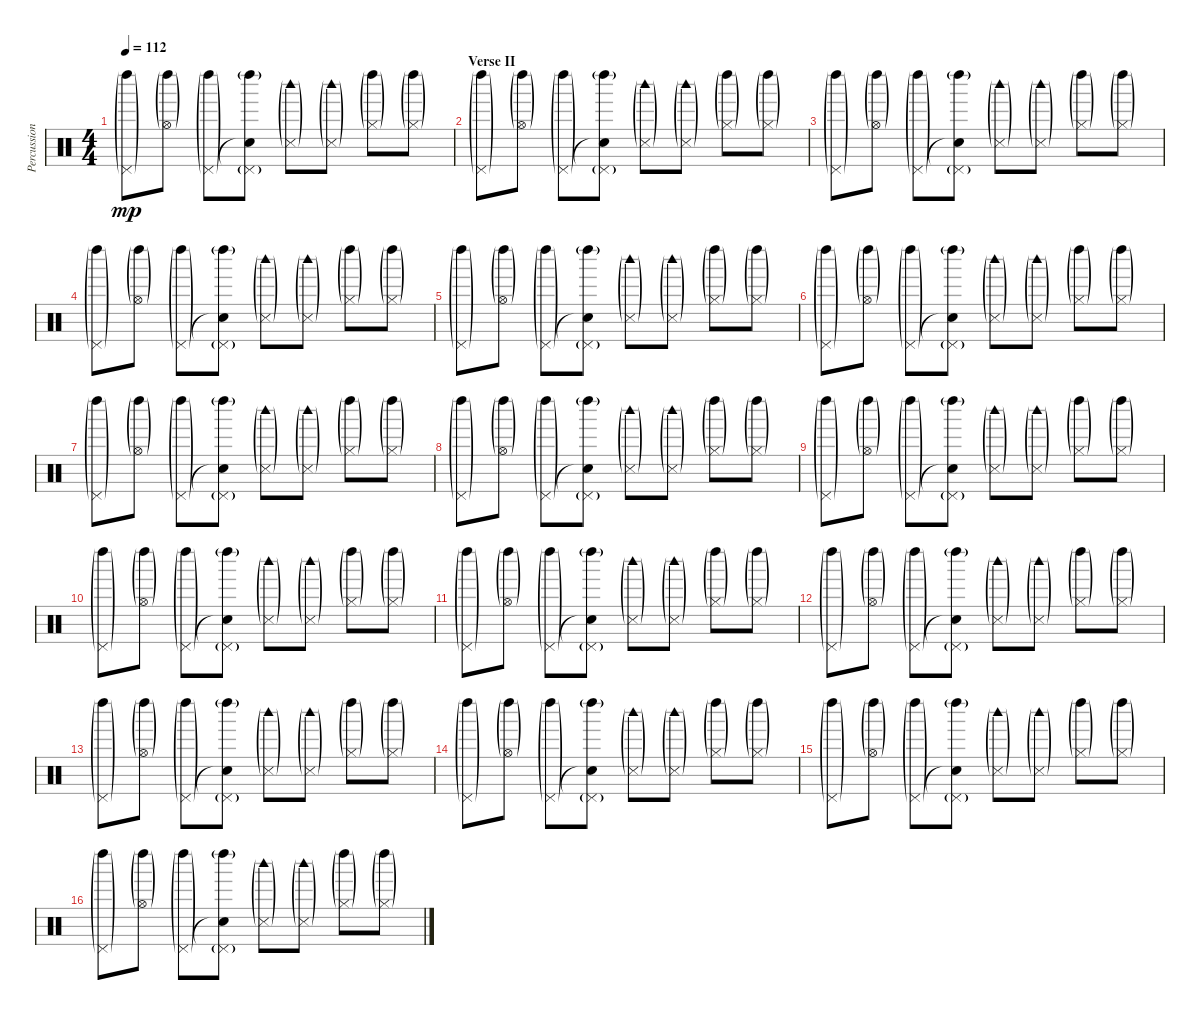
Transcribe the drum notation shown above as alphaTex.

\track ("Percussion" "Percussion") {instrument percussion}
\staff {score}
\articulation defaults
\ts (4 4)
\tempo 112
\clef neutral
\ks c
("Left Maraca (hit)"{g} "Pedal Hi-Hat (hit)"{g}).8{dy mp} ("Left Maraca (hit)"{g} "Hi-Hat (open)"{g}).8 ("Left Maraca (hit)"{g} "Pedal Hi-Hat (hit)"{g}).8 ("Left Maraca (hit)"{g} "Snare (hit)"{t} "Pedal Hi-Hat (hit)"{g}).8 ("Snare (side stick) 3"{g} "Woodblock high (hit)"{g}).8 ("Snare (side stick) 3"{g} "Woodblock high (hit)"{g}).8 ("Left Maraca (hit)"{g} "Hi-Hat (closed)"{g}).8 ("Left Maraca (hit)"{g} "Hi-Hat (closed)"{g}).8 |
\section ("" "Verse II")
("Left Maraca (hit)"{g} "Pedal Hi-Hat (hit)"{g}).8 ("Left Maraca (hit)"{g} "Hi-Hat (open)"{g}).8 ("Left Maraca (hit)"{g} "Pedal Hi-Hat (hit)"{g}).8 ("Left Maraca (hit)"{g} "Snare (hit)"{t} "Pedal Hi-Hat (hit)"{g}).8 ("Snare (side stick) 3"{g} "Woodblock high (hit)"{g}).8 ("Snare (side stick) 3"{g} "Woodblock high (hit)"{g}).8 ("Left Maraca (hit)"{g} "Hi-Hat (closed)"{g}).8 ("Left Maraca (hit)"{g} "Hi-Hat (closed)"{g}).8 |
("Left Maraca (hit)"{g} "Pedal Hi-Hat (hit)"{g}).8 ("Left Maraca (hit)"{g} "Hi-Hat (open)"{g}).8 ("Left Maraca (hit)"{g} "Pedal Hi-Hat (hit)"{g}).8 ("Left Maraca (hit)"{g} "Snare (hit)"{t} "Pedal Hi-Hat (hit)"{g}).8 ("Snare (side stick) 3"{g} "Woodblock high (hit)"{g}).8 ("Snare (side stick) 3"{g} "Woodblock high (hit)"{g}).8 ("Left Maraca (hit)"{g} "Hi-Hat (closed)"{g}).8 ("Left Maraca (hit)"{g} "Hi-Hat (closed)"{g}).8 |
("Left Maraca (hit)"{g} "Pedal Hi-Hat (hit)"{g}).8 ("Left Maraca (hit)"{g} "Hi-Hat (open)"{g}).8 ("Left Maraca (hit)"{g} "Pedal Hi-Hat (hit)"{g}).8 ("Left Maraca (hit)"{g} "Snare (hit)"{t} "Pedal Hi-Hat (hit)"{g}).8 ("Snare (side stick) 3"{g} "Woodblock high (hit)"{g}).8 ("Snare (side stick) 3"{g} "Woodblock high (hit)"{g}).8 ("Left Maraca (hit)"{g} "Hi-Hat (closed)"{g}).8 ("Left Maraca (hit)"{g} "Hi-Hat (closed)"{g}).8 |
("Left Maraca (hit)"{g} "Pedal Hi-Hat (hit)"{g}).8 ("Left Maraca (hit)"{g} "Hi-Hat (open)"{g}).8 ("Left Maraca (hit)"{g} "Pedal Hi-Hat (hit)"{g}).8 ("Left Maraca (hit)"{g} "Snare (hit)"{t} "Pedal Hi-Hat (hit)"{g}).8 ("Snare (side stick) 3"{g} "Woodblock high (hit)"{g}).8 ("Snare (side stick) 3"{g} "Woodblock high (hit)"{g}).8 ("Left Maraca (hit)"{g} "Hi-Hat (closed)"{g}).8 ("Left Maraca (hit)"{g} "Hi-Hat (closed)"{g}).8 |
("Left Maraca (hit)"{g} "Pedal Hi-Hat (hit)"{g}).8 ("Left Maraca (hit)"{g} "Hi-Hat (open)"{g}).8 ("Left Maraca (hit)"{g} "Pedal Hi-Hat (hit)"{g}).8 ("Left Maraca (hit)"{g} "Snare (hit)"{t} "Pedal Hi-Hat (hit)"{g}).8 ("Snare (side stick) 3"{g} "Woodblock high (hit)"{g}).8 ("Snare (side stick) 3"{g} "Woodblock high (hit)"{g}).8 ("Left Maraca (hit)"{g} "Hi-Hat (closed)"{g}).8 ("Left Maraca (hit)"{g} "Hi-Hat (closed)"{g}).8 |
("Left Maraca (hit)"{g} "Pedal Hi-Hat (hit)"{g}).8 ("Left Maraca (hit)"{g} "Hi-Hat (open)"{g}).8 ("Left Maraca (hit)"{g} "Pedal Hi-Hat (hit)"{g}).8 ("Left Maraca (hit)"{g} "Snare (hit)"{t} "Pedal Hi-Hat (hit)"{g}).8 ("Snare (side stick) 3"{g} "Woodblock high (hit)"{g}).8 ("Snare (side stick) 3"{g} "Woodblock high (hit)"{g}).8 ("Left Maraca (hit)"{g} "Hi-Hat (closed)"{g}).8 ("Left Maraca (hit)"{g} "Hi-Hat (closed)"{g}).8 |
("Left Maraca (hit)"{g} "Pedal Hi-Hat (hit)"{g}).8 ("Left Maraca (hit)"{g} "Hi-Hat (open)"{g}).8 ("Left Maraca (hit)"{g} "Pedal Hi-Hat (hit)"{g}).8 ("Left Maraca (hit)"{g} "Snare (hit)"{t} "Pedal Hi-Hat (hit)"{g}).8 ("Snare (side stick) 3"{g} "Woodblock high (hit)"{g}).8 ("Snare (side stick) 3"{g} "Woodblock high (hit)"{g}).8 ("Left Maraca (hit)"{g} "Hi-Hat (closed)"{g}).8 ("Left Maraca (hit)"{g} "Hi-Hat (closed)"{g}).8 |
("Left Maraca (hit)"{g} "Pedal Hi-Hat (hit)"{g}).8 ("Left Maraca (hit)"{g} "Hi-Hat (open)"{g}).8 ("Left Maraca (hit)"{g} "Pedal Hi-Hat (hit)"{g}).8 ("Left Maraca (hit)"{g} "Snare (hit)"{t} "Pedal Hi-Hat (hit)"{g}).8 ("Snare (side stick) 3"{g} "Woodblock high (hit)"{g}).8 ("Snare (side stick) 3"{g} "Woodblock high (hit)"{g}).8 ("Left Maraca (hit)"{g} "Hi-Hat (closed)"{g}).8 ("Left Maraca (hit)"{g} "Hi-Hat (closed)"{g}).8 |
("Left Maraca (hit)"{g} "Pedal Hi-Hat (hit)"{g}).8 ("Left Maraca (hit)"{g} "Hi-Hat (open)"{g}).8 ("Left Maraca (hit)"{g} "Pedal Hi-Hat (hit)"{g}).8 ("Left Maraca (hit)"{g} "Snare (hit)"{t} "Pedal Hi-Hat (hit)"{g}).8 ("Snare (side stick) 3"{g} "Woodblock high (hit)"{g}).8 ("Snare (side stick) 3"{g} "Woodblock high (hit)"{g}).8 ("Left Maraca (hit)"{g} "Hi-Hat (closed)"{g}).8 ("Left Maraca (hit)"{g} "Hi-Hat (closed)"{g}).8 |
("Left Maraca (hit)"{g} "Pedal Hi-Hat (hit)"{g}).8 ("Left Maraca (hit)"{g} "Hi-Hat (open)"{g}).8 ("Left Maraca (hit)"{g} "Pedal Hi-Hat (hit)"{g}).8 ("Left Maraca (hit)"{g} "Snare (hit)"{t} "Pedal Hi-Hat (hit)"{g}).8 ("Snare (side stick) 3"{g} "Woodblock high (hit)"{g}).8 ("Snare (side stick) 3"{g} "Woodblock high (hit)"{g}).8 ("Left Maraca (hit)"{g} "Hi-Hat (closed)"{g}).8 ("Left Maraca (hit)"{g} "Hi-Hat (closed)"{g}).8 |
("Left Maraca (hit)"{g} "Pedal Hi-Hat (hit)"{g}).8 ("Left Maraca (hit)"{g} "Hi-Hat (open)"{g}).8 ("Left Maraca (hit)"{g} "Pedal Hi-Hat (hit)"{g}).8 ("Left Maraca (hit)"{g} "Snare (hit)"{t} "Pedal Hi-Hat (hit)"{g}).8 ("Snare (side stick) 3"{g} "Woodblock high (hit)"{g}).8 ("Snare (side stick) 3"{g} "Woodblock high (hit)"{g}).8 ("Left Maraca (hit)"{g} "Hi-Hat (closed)"{g}).8 ("Left Maraca (hit)"{g} "Hi-Hat (closed)"{g}).8 |
("Left Maraca (hit)"{g} "Pedal Hi-Hat (hit)"{g}).8 ("Left Maraca (hit)"{g} "Hi-Hat (open)"{g}).8 ("Left Maraca (hit)"{g} "Pedal Hi-Hat (hit)"{g}).8 ("Left Maraca (hit)"{g} "Snare (hit)"{t} "Pedal Hi-Hat (hit)"{g}).8 ("Snare (side stick) 3"{g} "Woodblock high (hit)"{g}).8 ("Snare (side stick) 3"{g} "Woodblock high (hit)"{g}).8 ("Left Maraca (hit)"{g} "Hi-Hat (closed)"{g}).8 ("Left Maraca (hit)"{g} "Hi-Hat (closed)"{g}).8 |
("Left Maraca (hit)"{g} "Pedal Hi-Hat (hit)"{g}).8 ("Left Maraca (hit)"{g} "Hi-Hat (open)"{g}).8 ("Left Maraca (hit)"{g} "Pedal Hi-Hat (hit)"{g}).8 ("Left Maraca (hit)"{g} "Snare (hit)"{t} "Pedal Hi-Hat (hit)"{g}).8 ("Snare (side stick) 3"{g} "Woodblock high (hit)"{g}).8 ("Snare (side stick) 3"{g} "Woodblock high (hit)"{g}).8 ("Left Maraca (hit)"{g} "Hi-Hat (closed)"{g}).8 ("Left Maraca (hit)"{g} "Hi-Hat (closed)"{g}).8 |
("Left Maraca (hit)"{g} "Pedal Hi-Hat (hit)"{g}).8 ("Left Maraca (hit)"{g} "Hi-Hat (open)"{g}).8 ("Left Maraca (hit)"{g} "Pedal Hi-Hat (hit)"{g}).8 ("Left Maraca (hit)"{g} "Snare (hit)"{t} "Pedal Hi-Hat (hit)"{g}).8 ("Snare (side stick) 3"{g} "Woodblock high (hit)"{g}).8 ("Snare (side stick) 3"{g} "Woodblock high (hit)"{g}).8 ("Left Maraca (hit)"{g} "Hi-Hat (closed)"{g}).8 ("Left Maraca (hit)"{g} "Hi-Hat (closed)"{g}).8 |
("Left Maraca (hit)"{g} "Pedal Hi-Hat (hit)"{g}).8 ("Left Maraca (hit)"{g} "Hi-Hat (open)"{g}).8 ("Left Maraca (hit)"{g} "Pedal Hi-Hat (hit)"{g}).8 ("Left Maraca (hit)"{g} "Snare (hit)"{t} "Pedal Hi-Hat (hit)"{g}).8 ("Snare (side stick) 3"{g} "Woodblock high (hit)"{g}).8 ("Snare (side stick) 3"{g} "Woodblock high (hit)"{g}).8 ("Left Maraca (hit)"{g} "Hi-Hat (closed)"{g}).8 ("Left Maraca (hit)"{g} "Hi-Hat (closed)"{g}).8
